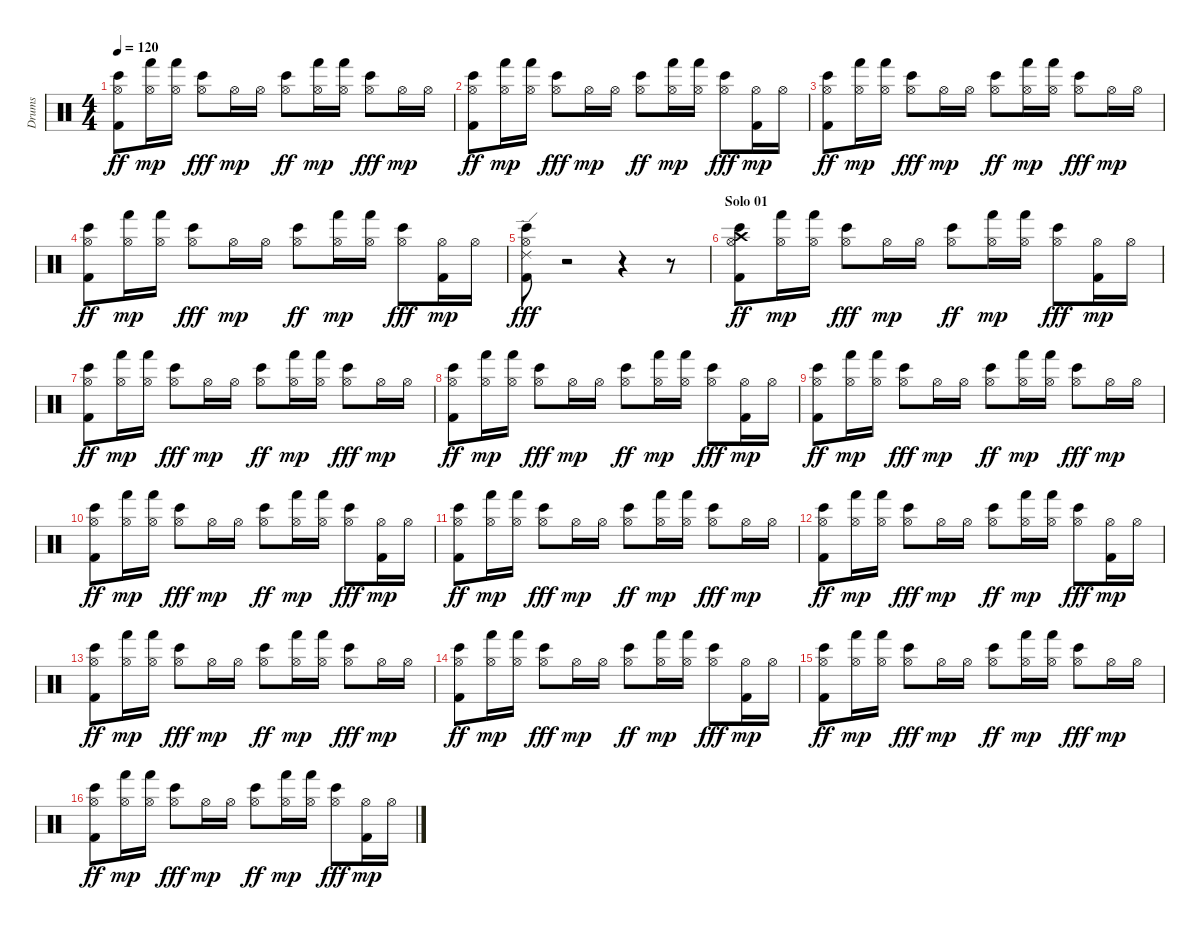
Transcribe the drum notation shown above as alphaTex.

\track ("Drums" "Drums") {instrument percussion}
\staff {score}
\articulation defaults
\ts (4 4)
\tempo 120
\clef neutral
\ks c
("Hi-Hat (open)" "Kick (hit) 2" "Bongo High (hit)").8{dy ff} ("Hi-Hat (open)" "Hand (hit)").16{dy mp} ("Hi-Hat (open)" "Hand (hit)").16 ("Hi-Hat (open)" "Bongo High (hit)").8{dy fff} "Hi-Hat (open)".16{dy mp} "Hi-Hat (open)".16 ("Hi-Hat (open)" "Bongo High (hit)").8{dy ff} ("Hi-Hat (open)" "Hand (hit)").16{dy mp} ("Hi-Hat (open)" "Hand (hit)").16 ("Hi-Hat (open)" "Bongo High (hit)").8{dy fff} "Hi-Hat (open)".16{dy mp} "Hi-Hat (open)".16 |
("Hi-Hat (open)" "Kick (hit) 2" "Bongo High (hit)").8{dy ff} ("Hi-Hat (open)" "Hand (hit)").16{dy mp} ("Hi-Hat (open)" "Hand (hit)").16 ("Hi-Hat (open)" "Bongo High (hit)").8{dy fff} "Hi-Hat (open)".16{dy mp} "Hi-Hat (open)".16 ("Hi-Hat (open)" "Bongo High (hit)").8{dy ff} ("Hi-Hat (open)" "Hand (hit)").16{dy mp} ("Hi-Hat (open)" "Hand (hit)").16 ("Hi-Hat (open)" "Bongo High (hit)").8{dy fff} ("Hi-Hat (open)" "Kick (hit) 2").16{dy mp} "Hi-Hat (open)".16 |
("Hi-Hat (open)" "Kick (hit) 2" "Bongo High (hit)").8{dy ff} ("Hi-Hat (open)" "Hand (hit)").16{dy mp} ("Hi-Hat (open)" "Hand (hit)").16 ("Hi-Hat (open)" "Bongo High (hit)").8{dy fff} "Hi-Hat (open)".16{dy mp} "Hi-Hat (open)".16 ("Hi-Hat (open)" "Bongo High (hit)").8{dy ff} ("Hi-Hat (open)" "Hand (hit)").16{dy mp} ("Hi-Hat (open)" "Hand (hit)").16 ("Hi-Hat (open)" "Bongo High (hit)").8{dy fff} "Hi-Hat (open)".16{dy mp} "Hi-Hat (open)".16 |
("Hi-Hat (open)" "Kick (hit) 2" "Bongo High (hit)").8{dy ff} ("Hi-Hat (open)" "Hand (hit)").16{dy mp} ("Hi-Hat (open)" "Hand (hit)").16 ("Hi-Hat (open)" "Bongo High (hit)").8{dy fff} "Hi-Hat (open)".16{dy mp} "Hi-Hat (open)".16 ("Hi-Hat (open)" "Bongo High (hit)").8{dy ff} ("Hi-Hat (open)" "Hand (hit)").16{dy mp} ("Hi-Hat (open)" "Hand (hit)").16 ("Hi-Hat (open)" "Bongo High (hit)").8{dy fff} ("Hi-Hat (open)" "Kick (hit) 2").16{dy mp} "Hi-Hat (open)".16 |
("Hi-Hat (open)" "Kick (hit) 2" "Bongo High (hit)" "Ride (edge) 2").8{dy fff} r.2 r.4 r.8 |
\section ("" "Solo 01")
("Hi-Hat (open)" "Kick (hit) 2" "Bongo High (hit)" "Crash high (hit)").8{dy ff} ("Hi-Hat (open)" "Hand (hit)").16{dy mp} ("Hi-Hat (open)" "Hand (hit)").16 ("Hi-Hat (open)" "Bongo High (hit)").8{dy fff} "Hi-Hat (open)".16{dy mp} "Hi-Hat (open)".16 ("Hi-Hat (open)" "Bongo High (hit)").8{dy ff} ("Hi-Hat (open)" "Hand (hit)").16{dy mp} ("Hi-Hat (open)" "Hand (hit)").16 ("Hi-Hat (open)" "Bongo High (hit)").8{dy fff} ("Hi-Hat (open)" "Kick (hit) 2").16{dy mp} "Hi-Hat (open)".16 |
("Hi-Hat (open)" "Kick (hit) 2" "Bongo High (hit)").8{dy ff} ("Hi-Hat (open)" "Hand (hit)").16{dy mp} ("Hi-Hat (open)" "Hand (hit)").16 ("Hi-Hat (open)" "Bongo High (hit)").8{dy fff} "Hi-Hat (open)".16{dy mp} "Hi-Hat (open)".16 ("Hi-Hat (open)" "Bongo High (hit)").8{dy ff} ("Hi-Hat (open)" "Hand (hit)").16{dy mp} ("Hi-Hat (open)" "Hand (hit)").16 ("Hi-Hat (open)" "Bongo High (hit)").8{dy fff} "Hi-Hat (open)".16{dy mp} "Hi-Hat (open)".16 |
("Hi-Hat (open)" "Kick (hit) 2" "Bongo High (hit)").8{dy ff} ("Hi-Hat (open)" "Hand (hit)").16{dy mp} ("Hi-Hat (open)" "Hand (hit)").16 ("Hi-Hat (open)" "Bongo High (hit)").8{dy fff} "Hi-Hat (open)".16{dy mp} "Hi-Hat (open)".16 ("Hi-Hat (open)" "Bongo High (hit)").8{dy ff} ("Hi-Hat (open)" "Hand (hit)").16{dy mp} ("Hi-Hat (open)" "Hand (hit)").16 ("Hi-Hat (open)" "Bongo High (hit)").8{dy fff} ("Hi-Hat (open)" "Kick (hit) 2").16{dy mp} "Hi-Hat (open)".16 |
("Hi-Hat (open)" "Kick (hit) 2" "Bongo High (hit)").8{dy ff} ("Hi-Hat (open)" "Hand (hit)").16{dy mp} ("Hi-Hat (open)" "Hand (hit)").16 ("Hi-Hat (open)" "Bongo High (hit)").8{dy fff} "Hi-Hat (open)".16{dy mp} "Hi-Hat (open)".16 ("Hi-Hat (open)" "Bongo High (hit)").8{dy ff} ("Hi-Hat (open)" "Hand (hit)").16{dy mp} ("Hi-Hat (open)" "Hand (hit)").16 ("Hi-Hat (open)" "Bongo High (hit)").8{dy fff} "Hi-Hat (open)".16{dy mp} "Hi-Hat (open)".16 |
("Hi-Hat (open)" "Kick (hit) 2" "Bongo High (hit)").8{dy ff} ("Hi-Hat (open)" "Hand (hit)").16{dy mp} ("Hi-Hat (open)" "Hand (hit)").16 ("Hi-Hat (open)" "Bongo High (hit)").8{dy fff} "Hi-Hat (open)".16{dy mp} "Hi-Hat (open)".16 ("Hi-Hat (open)" "Bongo High (hit)").8{dy ff} ("Hi-Hat (open)" "Hand (hit)").16{dy mp} ("Hi-Hat (open)" "Hand (hit)").16 ("Hi-Hat (open)" "Bongo High (hit)").8{dy fff} ("Hi-Hat (open)" "Kick (hit) 2").16{dy mp} "Hi-Hat (open)".16 |
("Hi-Hat (open)" "Kick (hit) 2" "Bongo High (hit)").8{dy ff} ("Hi-Hat (open)" "Hand (hit)").16{dy mp} ("Hi-Hat (open)" "Hand (hit)").16 ("Hi-Hat (open)" "Bongo High (hit)").8{dy fff} "Hi-Hat (open)".16{dy mp} "Hi-Hat (open)".16 ("Hi-Hat (open)" "Bongo High (hit)").8{dy ff} ("Hi-Hat (open)" "Hand (hit)").16{dy mp} ("Hi-Hat (open)" "Hand (hit)").16 ("Hi-Hat (open)" "Bongo High (hit)").8{dy fff} "Hi-Hat (open)".16{dy mp} "Hi-Hat (open)".16 |
("Hi-Hat (open)" "Kick (hit) 2" "Bongo High (hit)").8{dy ff} ("Hi-Hat (open)" "Hand (hit)").16{dy mp} ("Hi-Hat (open)" "Hand (hit)").16 ("Hi-Hat (open)" "Bongo High (hit)").8{dy fff} "Hi-Hat (open)".16{dy mp} "Hi-Hat (open)".16 ("Hi-Hat (open)" "Bongo High (hit)").8{dy ff} ("Hi-Hat (open)" "Hand (hit)").16{dy mp} ("Hi-Hat (open)" "Hand (hit)").16 ("Hi-Hat (open)" "Bongo High (hit)").8{dy fff} ("Hi-Hat (open)" "Kick (hit) 2").16{dy mp} "Hi-Hat (open)".16 |
("Hi-Hat (open)" "Kick (hit) 2" "Bongo High (hit)").8{dy ff} ("Hi-Hat (open)" "Hand (hit)").16{dy mp} ("Hi-Hat (open)" "Hand (hit)").16 ("Hi-Hat (open)" "Bongo High (hit)").8{dy fff} "Hi-Hat (open)".16{dy mp} "Hi-Hat (open)".16 ("Hi-Hat (open)" "Bongo High (hit)").8{dy ff} ("Hi-Hat (open)" "Hand (hit)").16{dy mp} ("Hi-Hat (open)" "Hand (hit)").16 ("Hi-Hat (open)" "Bongo High (hit)").8{dy fff} "Hi-Hat (open)".16{dy mp} "Hi-Hat (open)".16 |
("Hi-Hat (open)" "Kick (hit) 2" "Bongo High (hit)").8{dy ff} ("Hi-Hat (open)" "Hand (hit)").16{dy mp} ("Hi-Hat (open)" "Hand (hit)").16 ("Hi-Hat (open)" "Bongo High (hit)").8{dy fff} "Hi-Hat (open)".16{dy mp} "Hi-Hat (open)".16 ("Hi-Hat (open)" "Bongo High (hit)").8{dy ff} ("Hi-Hat (open)" "Hand (hit)").16{dy mp} ("Hi-Hat (open)" "Hand (hit)").16 ("Hi-Hat (open)" "Bongo High (hit)").8{dy fff} ("Hi-Hat (open)" "Kick (hit) 2").16{dy mp} "Hi-Hat (open)".16 |
("Hi-Hat (open)" "Kick (hit) 2" "Bongo High (hit)").8{dy ff} ("Hi-Hat (open)" "Hand (hit)").16{dy mp} ("Hi-Hat (open)" "Hand (hit)").16 ("Hi-Hat (open)" "Bongo High (hit)").8{dy fff} "Hi-Hat (open)".16{dy mp} "Hi-Hat (open)".16 ("Hi-Hat (open)" "Bongo High (hit)").8{dy ff} ("Hi-Hat (open)" "Hand (hit)").16{dy mp} ("Hi-Hat (open)" "Hand (hit)").16 ("Hi-Hat (open)" "Bongo High (hit)").8{dy fff} "Hi-Hat (open)".16{dy mp} "Hi-Hat (open)".16 |
("Hi-Hat (open)" "Kick (hit) 2" "Bongo High (hit)").8{dy ff} ("Hi-Hat (open)" "Hand (hit)").16{dy mp} ("Hi-Hat (open)" "Hand (hit)").16 ("Hi-Hat (open)" "Bongo High (hit)").8{dy fff} "Hi-Hat (open)".16{dy mp} "Hi-Hat (open)".16 ("Hi-Hat (open)" "Bongo High (hit)").8{dy ff} ("Hi-Hat (open)" "Hand (hit)").16{dy mp} ("Hi-Hat (open)" "Hand (hit)").16 ("Hi-Hat (open)" "Bongo High (hit)").8{dy fff} ("Hi-Hat (open)" "Kick (hit) 2").16{dy mp} "Hi-Hat (open)".16
